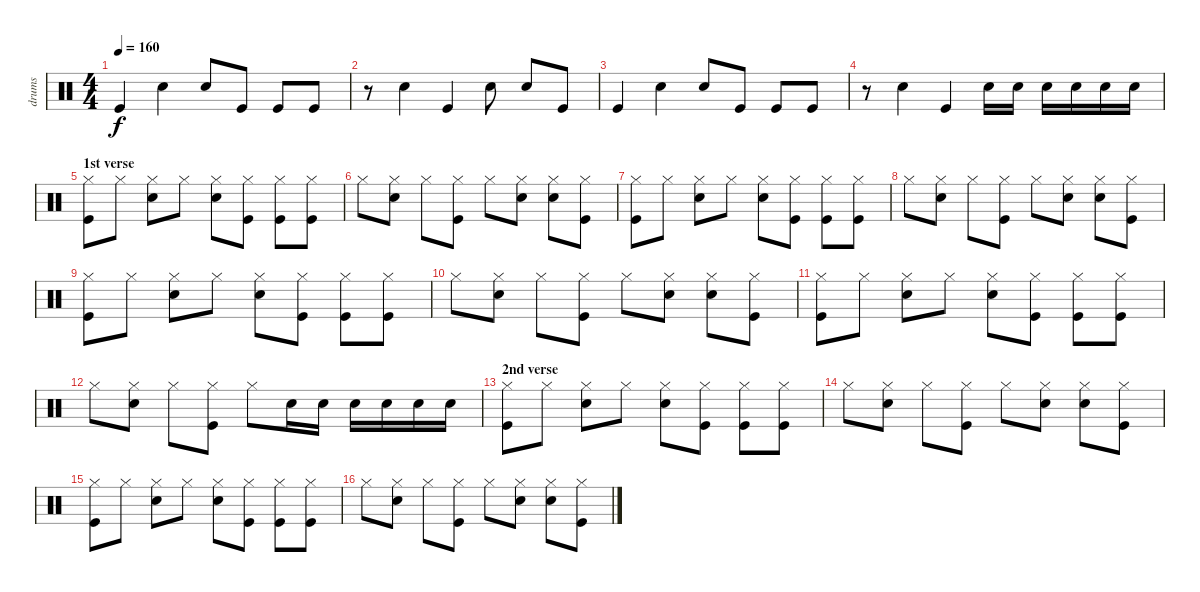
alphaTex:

\track ("drums" "drums") {instrument percussion}
\staff {score}
\articulation defaults
\ts (4 4)
\tempo 160
\clef neutral
\ks c "Kick (hit)".4{dy f} "Electric Snare (hit)".4 "Electric Snare (hit)".8 "Kick (hit)".8 "Kick (hit)".8 "Kick (hit)".8
|
r.8 "Electric Snare (hit)".4 "Kick (hit)".4 "Electric Snare (hit)".8 "Electric Snare (hit)".8 "Kick (hit)".8 |
"Kick (hit)".4 "Electric Snare (hit)".4 "Electric Snare (hit)".8 "Kick (hit)".8 "Kick (hit)".8 "Kick (hit)".8 |
r.8 "Electric Snare (hit)".4 "Kick (hit)".4 "Electric Snare (hit)".16 "Electric Snare (hit)".16 "Electric Snare (hit)".16 "Electric Snare (hit)".16 "Electric Snare (hit)".16 "Electric Snare (hit)".16 |
\section ("" "1st verse")
("Hi-Hat (closed)" "Kick (hit)").8 "Hi-Hat (closed)".8 ("Hi-Hat (closed)" "Electric Snare (hit)").8 "Hi-Hat (closed)".8 ("Hi-Hat (closed)" "Electric Snare (hit)").8 ("Hi-Hat (closed)" "Kick (hit)").8 ("Hi-Hat (closed)" "Kick (hit)").8 ("Hi-Hat (closed)" "Kick (hit)").8 |
"Hi-Hat (closed)".8 ("Hi-Hat (closed)" "Electric Snare (hit)").8 "Hi-Hat (closed)".8 ("Hi-Hat (closed)" "Kick (hit)").8 "Hi-Hat (closed)".8 ("Hi-Hat (closed)" "Electric Snare (hit)").8 ("Hi-Hat (closed)" "Electric Snare (hit)").8 ("Hi-Hat (closed)" "Kick (hit)").8 |
("Hi-Hat (closed)" "Kick (hit)").8 "Hi-Hat (closed)".8 ("Hi-Hat (closed)" "Electric Snare (hit)").8 "Hi-Hat (closed)".8 ("Hi-Hat (closed)" "Electric Snare (hit)").8 ("Hi-Hat (closed)" "Kick (hit)").8 ("Hi-Hat (closed)" "Kick (hit)").8 ("Hi-Hat (closed)" "Kick (hit)").8 |
"Hi-Hat (closed)".8 ("Hi-Hat (closed)" "Electric Snare (hit)").8 "Hi-Hat (closed)".8 ("Hi-Hat (closed)" "Kick (hit)").8 "Hi-Hat (closed)".8 ("Hi-Hat (closed)" "Electric Snare (hit)").8 ("Hi-Hat (closed)" "Electric Snare (hit)").8 ("Hi-Hat (closed)" "Kick (hit)").8 |
("Hi-Hat (closed)" "Kick (hit)").8 "Hi-Hat (closed)".8 ("Hi-Hat (closed)" "Electric Snare (hit)").8 "Hi-Hat (closed)".8 ("Hi-Hat (closed)" "Electric Snare (hit)").8 ("Hi-Hat (closed)" "Kick (hit)").8 ("Hi-Hat (closed)" "Kick (hit)").8 ("Hi-Hat (closed)" "Kick (hit)").8 |
"Hi-Hat (closed)".8 ("Hi-Hat (closed)" "Electric Snare (hit)").8 "Hi-Hat (closed)".8 ("Hi-Hat (closed)" "Kick (hit)").8 "Hi-Hat (closed)".8 ("Hi-Hat (closed)" "Electric Snare (hit)").8 ("Hi-Hat (closed)" "Electric Snare (hit)").8 ("Hi-Hat (closed)" "Kick (hit)").8 |
("Hi-Hat (closed)" "Kick (hit)").8 "Hi-Hat (closed)".8 ("Hi-Hat (closed)" "Electric Snare (hit)").8 "Hi-Hat (closed)".8 ("Hi-Hat (closed)" "Electric Snare (hit)").8 ("Hi-Hat (closed)" "Kick (hit)").8 ("Hi-Hat (closed)" "Kick (hit)").8 ("Hi-Hat (closed)" "Kick (hit)").8 |
"Hi-Hat (closed)".8 ("Hi-Hat (closed)" "Electric Snare (hit)").8 "Hi-Hat (closed)".8 ("Hi-Hat (closed)" "Kick (hit)").8 "Hi-Hat (closed)".8 "Electric Snare (hit)".16 "Electric Snare (hit)".16 "Electric Snare (hit)".16 "Electric Snare (hit)".16 "Electric Snare (hit)".16 "Electric Snare (hit)".16 |
\section ("" "2nd verse")
("Hi-Hat (closed)" "Kick (hit)").8 "Hi-Hat (closed)".8 ("Hi-Hat (closed)" "Electric Snare (hit)").8 "Hi-Hat (closed)".8 ("Hi-Hat (closed)" "Electric Snare (hit)").8 ("Hi-Hat (closed)" "Kick (hit)").8 ("Hi-Hat (closed)" "Kick (hit)").8 ("Hi-Hat (closed)" "Kick (hit)").8 |
"Hi-Hat (closed)".8 ("Hi-Hat (closed)" "Electric Snare (hit)").8 "Hi-Hat (closed)".8 ("Hi-Hat (closed)" "Kick (hit)").8 "Hi-Hat (closed)".8 ("Hi-Hat (closed)" "Electric Snare (hit)").8 ("Hi-Hat (closed)" "Electric Snare (hit)").8 ("Hi-Hat (closed)" "Kick (hit)").8 |
("Hi-Hat (closed)" "Kick (hit)").8 "Hi-Hat (closed)".8 ("Hi-Hat (closed)" "Electric Snare (hit)").8 "Hi-Hat (closed)".8 ("Hi-Hat (closed)" "Electric Snare (hit)").8 ("Hi-Hat (closed)" "Kick (hit)").8 ("Hi-Hat (closed)" "Kick (hit)").8 ("Hi-Hat (closed)" "Kick (hit)").8 |
"Hi-Hat (closed)".8 ("Hi-Hat (closed)" "Electric Snare (hit)").8 "Hi-Hat (closed)".8 ("Hi-Hat (closed)" "Kick (hit)").8 "Hi-Hat (closed)".8 ("Hi-Hat (closed)" "Electric Snare (hit)").8 ("Hi-Hat (closed)" "Electric Snare (hit)").8 ("Hi-Hat (closed)" "Kick (hit)").8
